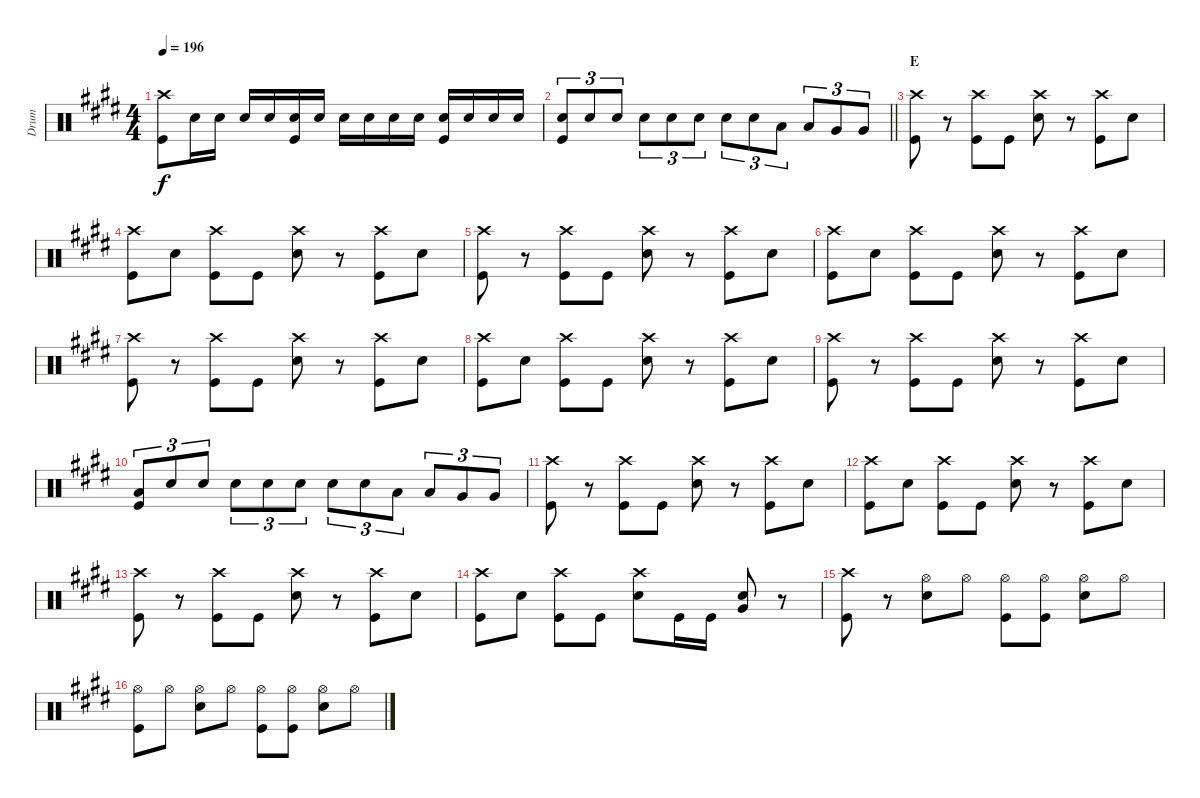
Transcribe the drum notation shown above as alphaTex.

\track ("Drum" "Drum") {instrument percussion}
\staff {score}
\articulation defaults
\ts (4 4)
\tempo 196
\clef neutral
\ks e
("Crash high (hit)" "Kick (hit)").8{dy f} "Snare (hit) 2".16 "Snare (hit) 2".16 "Snare (hit) 2".16 "Snare (hit) 2".16 ("Snare (hit) 2" "Kick (hit)").16 "Snare (hit) 2".16 "Snare (hit) 2".16 "Snare (hit) 2".16 "Snare (hit) 2".16 "Snare (hit) 2".16 ("Snare (hit) 2" "Kick (hit)").16 "Snare (hit) 2".16 "Snare (hit) 2".16 "Snare (hit) 2".16 |
\barLineRight lightlight
("Snare (hit) 2" "Kick (hit)").8{tu (3 2)} "Snare (hit) 2".8{tu (3 2)} "Snare (hit) 2".8{tu (3 2)} "Snare (hit) 2".8{tu (3 2)} "Snare (hit) 2".8{tu (3 2)} "Snare (hit) 2".8{tu (3 2)} "Snare (hit) 2".8{tu (3 2)} "Snare (hit) 2".8{tu (3 2)} "Low Tom (hit)".8{tu (3 2)} "Low Tom (hit)".8{tu (3 2)} "Very Low Tom (hit)".8{tu (3 2)} "Very Low Tom (hit)".8{tu (3 2)} |
\section ("" "E")
("Crash high (hit)" "Kick (hit)").8 r.8 ("Crash high (hit)" "Kick (hit)").8 "Kick (hit)".8 ("Crash high (hit)" "Snare (hit) 2").8 r.8 ("Crash high (hit)" "Kick (hit)").8 "Snare (hit) 2".8 |
("Crash high (hit)" "Kick (hit)").8 "Snare (hit) 2".8 ("Crash high (hit)" "Kick (hit)").8 "Kick (hit)".8 ("Crash high (hit)" "Snare (hit) 2").8 r.8 ("Crash high (hit)" "Kick (hit)").8 "Snare (hit) 2".8 |
("Crash high (hit)" "Kick (hit)").8 r.8 ("Crash high (hit)" "Kick (hit)").8 "Kick (hit)".8 ("Crash high (hit)" "Snare (hit) 2").8 r.8 ("Crash high (hit)" "Kick (hit)").8 "Snare (hit) 2".8 |
("Crash high (hit)" "Kick (hit)").8 "Snare (hit) 2".8 ("Crash high (hit)" "Kick (hit)").8 "Kick (hit)".8 ("Crash high (hit)" "Snare (hit) 2").8 r.8 ("Crash high (hit)" "Kick (hit)").8 "Snare (hit) 2".8 |
("Crash high (hit)" "Kick (hit)").8 r.8 ("Crash high (hit)" "Kick (hit)").8 "Kick (hit)".8 ("Crash high (hit)" "Snare (hit) 2").8 r.8 ("Crash high (hit)" "Kick (hit)").8 "Snare (hit) 2".8 |
("Crash high (hit)" "Kick (hit)").8 "Snare (hit) 2".8 ("Crash high (hit)" "Kick (hit)").8 "Kick (hit)".8 ("Crash high (hit)" "Snare (hit) 2").8 r.8 ("Crash high (hit)" "Kick (hit)").8 "Snare (hit) 2".8 |
("Crash high (hit)" "Kick (hit)").8 r.8 ("Crash high (hit)" "Kick (hit)").8 "Kick (hit)".8 ("Crash high (hit)" "Snare (hit) 2").8 r.8 ("Crash high (hit)" "Kick (hit)").8 "Snare (hit) 2".8 |
("Low Tom (hit)" "Kick (hit)").8{tu (3 2)} "Snare (hit) 2".8{tu (3 2)} "Snare (hit) 2".8{tu (3 2)} "Snare (hit) 2".8{tu (3 2)} "Snare (hit) 2".8{tu (3 2)} "Snare (hit) 2".8{tu (3 2)} "Snare (hit) 2".8{tu (3 2)} "Snare (hit) 2".8{tu (3 2)} "Low Tom (hit)".8{tu (3 2)} "Low Tom (hit)".8{tu (3 2)} "Very Low Tom (hit)".8{tu (3 2)} "Very Low Tom (hit)".8{tu (3 2)} |
("Crash high (hit)" "Kick (hit)").8 r.8 ("Crash high (hit)" "Kick (hit)").8 "Kick (hit)".8 ("Crash high (hit)" "Snare (hit) 2").8 r.8 ("Crash high (hit)" "Kick (hit)").8 "Snare (hit) 2".8 |
("Crash high (hit)" "Kick (hit)").8 "Snare (hit) 2".8 ("Crash high (hit)" "Kick (hit)").8 "Kick (hit)".8 ("Crash high (hit)" "Snare (hit) 2").8 r.8 ("Crash high (hit)" "Kick (hit)").8 "Snare (hit) 2".8 |
("Crash high (hit)" "Kick (hit)").8 r.8 ("Crash high (hit)" "Kick (hit)").8 "Kick (hit)".8 ("Crash high (hit)" "Snare (hit) 2").8 r.8 ("Crash high (hit)" "Kick (hit)").8 "Snare (hit) 2".8 |
("Crash high (hit)" "Kick (hit)").8 "Snare (hit) 2".8 ("Crash high (hit)" "Kick (hit)").8 "Kick (hit)".8 ("Crash high (hit)" "Snare (hit) 2").8 "Kick (hit)".16 "Kick (hit)".16 ("Snare (hit) 2" "Very Low Tom (hit)").8 r.8 |
("Crash high (hit)" "Kick (hit)").8 r.8 ("Hi-Hat (open)" "Snare (hit) 2").8 "Hi-Hat (open)".8 ("Hi-Hat (open)" "Kick (hit)").8 ("Hi-Hat (open)" "Kick (hit)").8 ("Hi-Hat (open)" "Snare (hit) 2").8 "Hi-Hat (open)".8 |
("Hi-Hat (open)" "Kick (hit)").8 "Hi-Hat (open)".8 ("Hi-Hat (open)" "Snare (hit) 2").8 "Hi-Hat (open)".8 ("Hi-Hat (open)" "Kick (hit)").8 ("Hi-Hat (open)" "Kick (hit)").8 ("Hi-Hat (open)" "Snare (hit) 2").8 "Hi-Hat (open)".8
